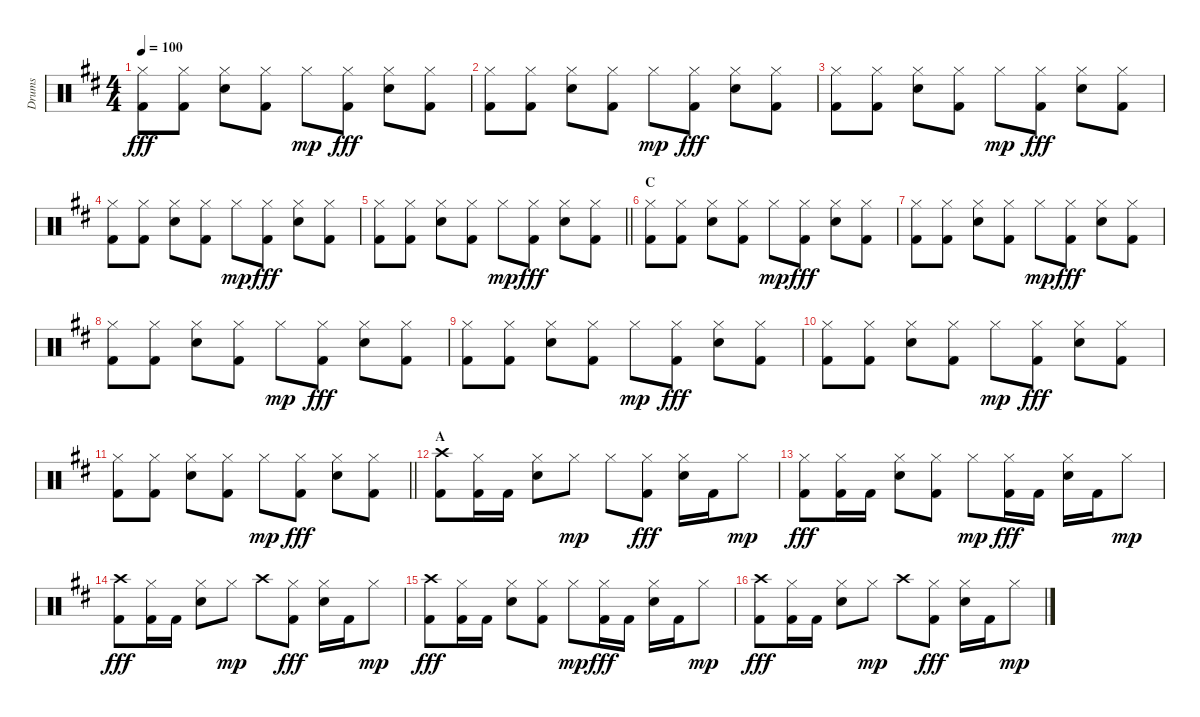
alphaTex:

\track ("Drums" "Drums") {instrument percussion}
\staff
\articulation defaults
\ts (4 4)
\tempo 100
\clef neutral
\ks bminor
("Hi-Hat (closed)" "Kick (hit) 2").8{dy fff} ("Hi-Hat (closed)" "Kick (hit) 2").8 ("Hi-Hat (closed)" "Electric Snare (hit)").8 ("Hi-Hat (closed)" "Kick (hit) 2").8 "Hi-Hat (closed)".8{dy mp} ("Hi-Hat (closed)" "Kick (hit) 2").8{dy fff} ("Hi-Hat (closed)" "Electric Snare (hit)").8 ("Hi-Hat (closed)" "Kick (hit) 2").8 |
("Hi-Hat (closed)" "Kick (hit) 2").8 ("Hi-Hat (closed)" "Kick (hit) 2").8 ("Hi-Hat (closed)" "Electric Snare (hit)").8 ("Hi-Hat (closed)" "Kick (hit) 2").8 "Hi-Hat (closed)".8{dy mp} ("Hi-Hat (closed)" "Kick (hit) 2").8{dy fff} ("Hi-Hat (closed)" "Electric Snare (hit)").8 ("Hi-Hat (closed)" "Kick (hit) 2").8 |
("Hi-Hat (closed)" "Kick (hit) 2").8 ("Hi-Hat (closed)" "Kick (hit) 2").8 ("Hi-Hat (closed)" "Electric Snare (hit)").8 ("Hi-Hat (closed)" "Kick (hit) 2").8 "Hi-Hat (closed)".8{dy mp} ("Hi-Hat (closed)" "Kick (hit) 2").8{dy fff} ("Hi-Hat (closed)" "Electric Snare (hit)").8 ("Hi-Hat (closed)" "Kick (hit) 2").8 |
("Hi-Hat (closed)" "Kick (hit) 2").8 ("Hi-Hat (closed)" "Kick (hit) 2").8 ("Hi-Hat (closed)" "Electric Snare (hit)").8 ("Hi-Hat (closed)" "Kick (hit) 2").8 "Hi-Hat (closed)".8{dy mp} ("Hi-Hat (closed)" "Kick (hit) 2").8{dy fff} ("Hi-Hat (closed)" "Electric Snare (hit)").8 ("Hi-Hat (closed)" "Kick (hit) 2").8 |
\barLineRight lightlight
("Hi-Hat (closed)" "Kick (hit) 2").8 ("Hi-Hat (closed)" "Kick (hit) 2").8 ("Hi-Hat (closed)" "Electric Snare (hit)").8 ("Hi-Hat (closed)" "Kick (hit) 2").8 "Hi-Hat (closed)".8{dy mp} ("Hi-Hat (closed)" "Kick (hit) 2").8{dy fff} ("Hi-Hat (closed)" "Electric Snare (hit)").8 ("Hi-Hat (closed)" "Kick (hit) 2").8 |
\section ("" "C")
("Hi-Hat (closed)" "Kick (hit) 2").8 ("Hi-Hat (closed)" "Kick (hit) 2").8 ("Hi-Hat (closed)" "Electric Snare (hit)").8 ("Hi-Hat (closed)" "Kick (hit) 2").8 "Hi-Hat (closed)".8{dy mp} ("Hi-Hat (closed)" "Kick (hit) 2").8{dy fff} ("Hi-Hat (closed)" "Electric Snare (hit)").8 ("Hi-Hat (closed)" "Kick (hit) 2").8 |
("Hi-Hat (closed)" "Kick (hit) 2").8 ("Hi-Hat (closed)" "Kick (hit) 2").8 ("Hi-Hat (closed)" "Electric Snare (hit)").8 ("Hi-Hat (closed)" "Kick (hit) 2").8 "Hi-Hat (closed)".8{dy mp} ("Hi-Hat (closed)" "Kick (hit) 2").8{dy fff} ("Hi-Hat (closed)" "Electric Snare (hit)").8 ("Hi-Hat (closed)" "Kick (hit) 2").8 |
("Hi-Hat (closed)" "Kick (hit) 2").8 ("Hi-Hat (closed)" "Kick (hit) 2").8 ("Hi-Hat (closed)" "Electric Snare (hit)").8 ("Hi-Hat (closed)" "Kick (hit) 2").8 "Hi-Hat (closed)".8{dy mp} ("Hi-Hat (closed)" "Kick (hit) 2").8{dy fff} ("Hi-Hat (closed)" "Electric Snare (hit)").8 ("Hi-Hat (closed)" "Kick (hit) 2").8 |
("Hi-Hat (closed)" "Kick (hit) 2").8 ("Hi-Hat (closed)" "Kick (hit) 2").8 ("Hi-Hat (closed)" "Electric Snare (hit)").8 ("Hi-Hat (closed)" "Kick (hit) 2").8 "Hi-Hat (closed)".8{dy mp} ("Hi-Hat (closed)" "Kick (hit) 2").8{dy fff} ("Hi-Hat (closed)" "Electric Snare (hit)").8 ("Hi-Hat (closed)" "Kick (hit) 2").8 |
("Hi-Hat (closed)" "Kick (hit) 2").8 ("Hi-Hat (closed)" "Kick (hit) 2").8 ("Hi-Hat (closed)" "Electric Snare (hit)").8 ("Hi-Hat (closed)" "Kick (hit) 2").8 "Hi-Hat (closed)".8{dy mp} ("Hi-Hat (closed)" "Kick (hit) 2").8{dy fff} ("Hi-Hat (closed)" "Electric Snare (hit)").8 ("Hi-Hat (closed)" "Kick (hit) 2").8 |
\barLineRight lightlight
("Hi-Hat (closed)" "Kick (hit) 2").8 ("Hi-Hat (closed)" "Kick (hit) 2").8 ("Hi-Hat (closed)" "Electric Snare (hit)").8 ("Hi-Hat (closed)" "Kick (hit) 2").8 "Hi-Hat (closed)".8{dy mp} ("Hi-Hat (closed)" "Kick (hit) 2").8{dy fff} ("Hi-Hat (closed)" "Electric Snare (hit)").8 ("Hi-Hat (closed)" "Kick (hit) 2").8 |
\section ("" "A")
("Crash high (hit)" "Kick (hit) 2").8 ("Hi-Hat (closed)" "Kick (hit) 2").16 "Kick (hit) 2".16 ("Hi-Hat (closed)" "Electric Snare (hit)").8 "Hi-Hat (closed)".8{dy mp} "Hi-Hat (closed)".8 ("Hi-Hat (closed)" "Kick (hit) 2").8{dy fff} ("Hi-Hat (closed)" "Electric Snare (hit)").16 "Kick (hit) 2".16 "Hi-Hat (closed)".8{dy mp} |
("Hi-Hat (closed)" "Kick (hit) 2").8{dy fff} ("Hi-Hat (closed)" "Kick (hit) 2").16 "Kick (hit) 2".16 ("Hi-Hat (closed)" "Electric Snare (hit)").8 ("Hi-Hat (closed)" "Kick (hit) 2").8 "Hi-Hat (closed)".8{dy mp} ("Hi-Hat (closed)" "Kick (hit) 2").16{dy fff} "Kick (hit) 2".16 ("Hi-Hat (closed)" "Electric Snare (hit)").16 "Kick (hit) 2".16 "Hi-Hat (closed)".8{dy mp} |
("Crash high (hit)" "Kick (hit) 2").8{dy fff} ("Hi-Hat (closed)" "Kick (hit) 2").16 "Kick (hit) 2".16 ("Hi-Hat (closed)" "Electric Snare (hit)").8 "Hi-Hat (closed)".8{dy mp} "Crash high (hit)".8 ("Hi-Hat (closed)" "Kick (hit) 2").8{dy fff} ("Hi-Hat (closed)" "Electric Snare (hit)").16 "Kick (hit) 2".16 "Hi-Hat (closed)".8{dy mp} |
("Crash high (hit)" "Kick (hit) 2").8{dy fff} ("Hi-Hat (closed)" "Kick (hit) 2").16 "Kick (hit) 2".16 ("Hi-Hat (closed)" "Electric Snare (hit)").8 ("Hi-Hat (closed)" "Kick (hit) 2").8 "Hi-Hat (closed)".8{dy mp} ("Hi-Hat (closed)" "Kick (hit) 2").16{dy fff} "Kick (hit) 2".16 ("Hi-Hat (closed)" "Electric Snare (hit)").16 "Kick (hit) 2".16 "Hi-Hat (closed)".8{dy mp} |
("Crash high (hit)" "Kick (hit) 2").8{dy fff} ("Hi-Hat (closed)" "Kick (hit) 2").16 "Kick (hit) 2".16 ("Hi-Hat (closed)" "Electric Snare (hit)").8 "Hi-Hat (closed)".8{dy mp} "Crash high (hit)".8 ("Hi-Hat (closed)" "Kick (hit) 2").8{dy fff} ("Hi-Hat (closed)" "Electric Snare (hit)").16 "Kick (hit) 2".16 "Hi-Hat (closed)".8{dy mp}
